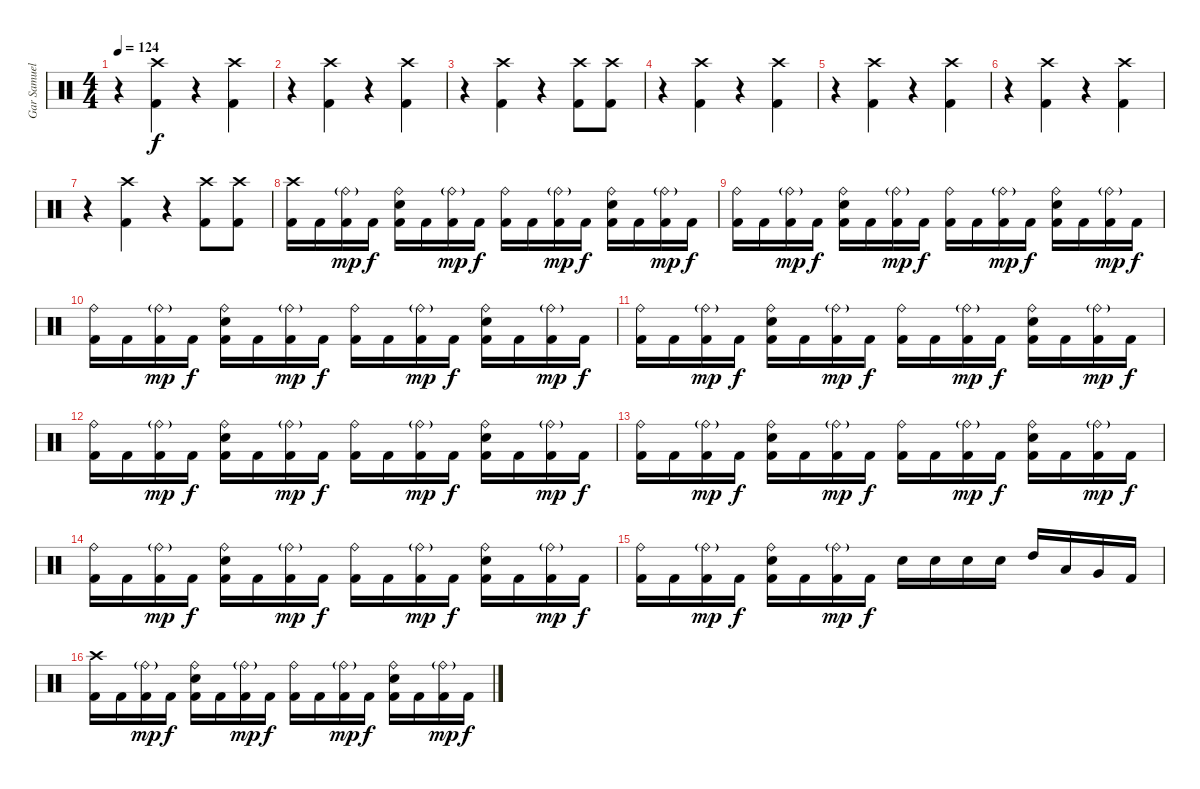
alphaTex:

\track ("Gar Samuelson" "Gar Samuel") {instrument percussion}
\staff {score}
\articulation defaults
\ts (4 4)
\tempo 124
\clef neutral
\ks c
r.4{dy f} ("Crash high (hit)" "Kick (hit) 2").4 r.4 ("Crash high (hit)" "Kick (hit) 2").4 |
r.4 ("Crash high (hit)" "Kick (hit) 2").4 r.4 ("Crash high (hit)" "Kick (hit) 2").4 |
r.4 ("Crash high (hit)" "Kick (hit) 2").4 r.4 ("Crash high (hit)" "Kick (hit) 2").8 ("Crash high (hit)" "Kick (hit) 2").8 |
r.4 ("Crash high (hit)" "Kick (hit) 2").4 r.4 ("Crash high (hit)" "Kick (hit) 2").4 |
r.4 ("Crash high (hit)" "Kick (hit) 2").4 r.4 ("Crash high (hit)" "Kick (hit) 2").4 |
r.4 ("Crash high (hit)" "Kick (hit) 2").4 r.4 ("Crash high (hit)" "Kick (hit) 2").4 |
r.4 ("Crash high (hit)" "Kick (hit) 2").4 r.4 ("Crash high (hit)" "Kick (hit) 2").8 ("Crash high (hit)" "Kick (hit) 2").8 |
("Crash high (hit)" "Kick (hit) 2").16 "Kick (hit) 2".16 ("Ride (bell)"{g} "Kick (hit) 2").16{dy mp} "Kick (hit) 2".16{dy f} ("Ride (bell)" "Electric Snare (hit)" "Kick (hit) 2").16 "Kick (hit) 2".16 ("Ride (bell)"{g} "Kick (hit) 2").16{dy mp} "Kick (hit) 2".16{dy f} ("Ride (bell)" "Kick (hit) 2").16 "Kick (hit) 2".16 ("Ride (bell)"{g} "Kick (hit) 2").16{dy mp} "Kick (hit) 2".16{dy f} ("Ride (bell)" "Electric Snare (hit)" "Kick (hit) 2").16 "Kick (hit) 2".16 ("Ride (bell)"{g} "Kick (hit) 2").16{dy mp} "Kick (hit) 2".16{dy f} |
("Ride (bell)" "Kick (hit) 2").16 "Kick (hit) 2".16 ("Ride (bell)"{g} "Kick (hit) 2").16{dy mp} "Kick (hit) 2".16{dy f} ("Ride (bell)" "Electric Snare (hit)" "Kick (hit) 2").16 "Kick (hit) 2".16 ("Ride (bell)"{g} "Kick (hit) 2").16{dy mp} "Kick (hit) 2".16{dy f} ("Ride (bell)" "Kick (hit) 2").16 "Kick (hit) 2".16 ("Ride (bell)"{g} "Kick (hit) 2").16{dy mp} "Kick (hit) 2".16{dy f} ("Ride (bell)" "Electric Snare (hit)" "Kick (hit) 2").16 "Kick (hit) 2".16 ("Ride (bell)"{g} "Kick (hit) 2").16{dy mp} "Kick (hit) 2".16{dy f} |
("Ride (bell)" "Kick (hit) 2").16 "Kick (hit) 2".16 ("Ride (bell)"{g} "Kick (hit) 2").16{dy mp} "Kick (hit) 2".16{dy f} ("Ride (bell)" "Electric Snare (hit)" "Kick (hit) 2").16 "Kick (hit) 2".16 ("Ride (bell)"{g} "Kick (hit) 2").16{dy mp} "Kick (hit) 2".16{dy f} ("Ride (bell)" "Kick (hit) 2").16 "Kick (hit) 2".16 ("Ride (bell)"{g} "Kick (hit) 2").16{dy mp} "Kick (hit) 2".16{dy f} ("Ride (bell)" "Electric Snare (hit)" "Kick (hit) 2").16 "Kick (hit) 2".16 ("Ride (bell)"{g} "Kick (hit) 2").16{dy mp} "Kick (hit) 2".16{dy f} |
("Ride (bell)" "Kick (hit) 2").16 "Kick (hit) 2".16 ("Ride (bell)"{g} "Kick (hit) 2").16{dy mp} "Kick (hit) 2".16{dy f} ("Ride (bell)" "Electric Snare (hit)" "Kick (hit) 2").16 "Kick (hit) 2".16 ("Ride (bell)"{g} "Kick (hit) 2").16{dy mp} "Kick (hit) 2".16{dy f} ("Ride (bell)" "Kick (hit) 2").16 "Kick (hit) 2".16 ("Ride (bell)"{g} "Kick (hit) 2").16{dy mp} "Kick (hit) 2".16{dy f} ("Ride (bell)" "Electric Snare (hit)" "Kick (hit) 2").16 "Kick (hit) 2".16 ("Ride (bell)"{g} "Kick (hit) 2").16{dy mp} "Kick (hit) 2".16{dy f} |
("Ride (bell)" "Kick (hit) 2").16 "Kick (hit) 2".16 ("Ride (bell)"{g} "Kick (hit) 2").16{dy mp} "Kick (hit) 2".16{dy f} ("Ride (bell)" "Electric Snare (hit)" "Kick (hit) 2").16 "Kick (hit) 2".16 ("Ride (bell)"{g} "Kick (hit) 2").16{dy mp} "Kick (hit) 2".16{dy f} ("Ride (bell)" "Kick (hit) 2").16 "Kick (hit) 2".16 ("Ride (bell)"{g} "Kick (hit) 2").16{dy mp} "Kick (hit) 2".16{dy f} ("Ride (bell)" "Electric Snare (hit)" "Kick (hit) 2").16 "Kick (hit) 2".16 ("Ride (bell)"{g} "Kick (hit) 2").16{dy mp} "Kick (hit) 2".16{dy f} |
("Ride (bell)" "Kick (hit) 2").16 "Kick (hit) 2".16 ("Ride (bell)"{g} "Kick (hit) 2").16{dy mp} "Kick (hit) 2".16{dy f} ("Ride (bell)" "Electric Snare (hit)" "Kick (hit) 2").16 "Kick (hit) 2".16 ("Ride (bell)"{g} "Kick (hit) 2").16{dy mp} "Kick (hit) 2".16{dy f} ("Ride (bell)" "Kick (hit) 2").16 "Kick (hit) 2".16 ("Ride (bell)"{g} "Kick (hit) 2").16{dy mp} "Kick (hit) 2".16{dy f} ("Ride (bell)" "Electric Snare (hit)" "Kick (hit) 2").16 "Kick (hit) 2".16 ("Ride (bell)"{g} "Kick (hit) 2").16{dy mp} "Kick (hit) 2".16{dy f} |
("Ride (bell)" "Kick (hit) 2").16 "Kick (hit) 2".16 ("Ride (bell)"{g} "Kick (hit) 2").16{dy mp} "Kick (hit) 2".16{dy f} ("Ride (bell)" "Electric Snare (hit)" "Kick (hit) 2").16 "Kick (hit) 2".16 ("Ride (bell)"{g} "Kick (hit) 2").16{dy mp} "Kick (hit) 2".16{dy f} ("Ride (bell)" "Kick (hit) 2").16 "Kick (hit) 2".16 ("Ride (bell)"{g} "Kick (hit) 2").16{dy mp} "Kick (hit) 2".16{dy f} ("Ride (bell)" "Electric Snare (hit)" "Kick (hit) 2").16 "Kick (hit) 2".16 ("Ride (bell)"{g} "Kick (hit) 2").16{dy mp} "Kick (hit) 2".16{dy f} |
("Ride (bell)" "Kick (hit) 2").16 "Kick (hit) 2".16 ("Ride (bell)"{g} "Kick (hit) 2").16{dy mp} "Kick (hit) 2".16{dy f} ("Ride (bell)" "Electric Snare (hit)" "Kick (hit) 2").16 "Kick (hit) 2".16 ("Ride (bell)"{g} "Kick (hit) 2").16{dy mp} "Kick (hit) 2".16{dy f} "Electric Snare (hit)".16 "Electric Snare (hit)".16 "Electric Snare (hit)".16 "Electric Snare (hit)".16 "High Tom (hit)".16 "Low Tom (hit)".16 "Very Low Tom (hit)".16 "Kick (hit) 2".16 |
("Crash high (hit)" "Kick (hit) 2").16 "Kick (hit) 2".16 ("Ride (bell)"{g} "Kick (hit) 2").16{dy mp} "Kick (hit) 2".16{dy f} ("Ride (bell)" "Electric Snare (hit)" "Kick (hit) 2").16 "Kick (hit) 2".16 ("Ride (bell)"{g} "Kick (hit) 2").16{dy mp} "Kick (hit) 2".16{dy f} ("Ride (bell)" "Kick (hit) 2").16 "Kick (hit) 2".16 ("Ride (bell)"{g} "Kick (hit) 2").16{dy mp} "Kick (hit) 2".16{dy f} ("Ride (bell)" "Electric Snare (hit)" "Kick (hit) 2").16 "Kick (hit) 2".16 ("Ride (bell)"{g} "Kick (hit) 2").16{dy mp} "Kick (hit) 2".16{dy f}
